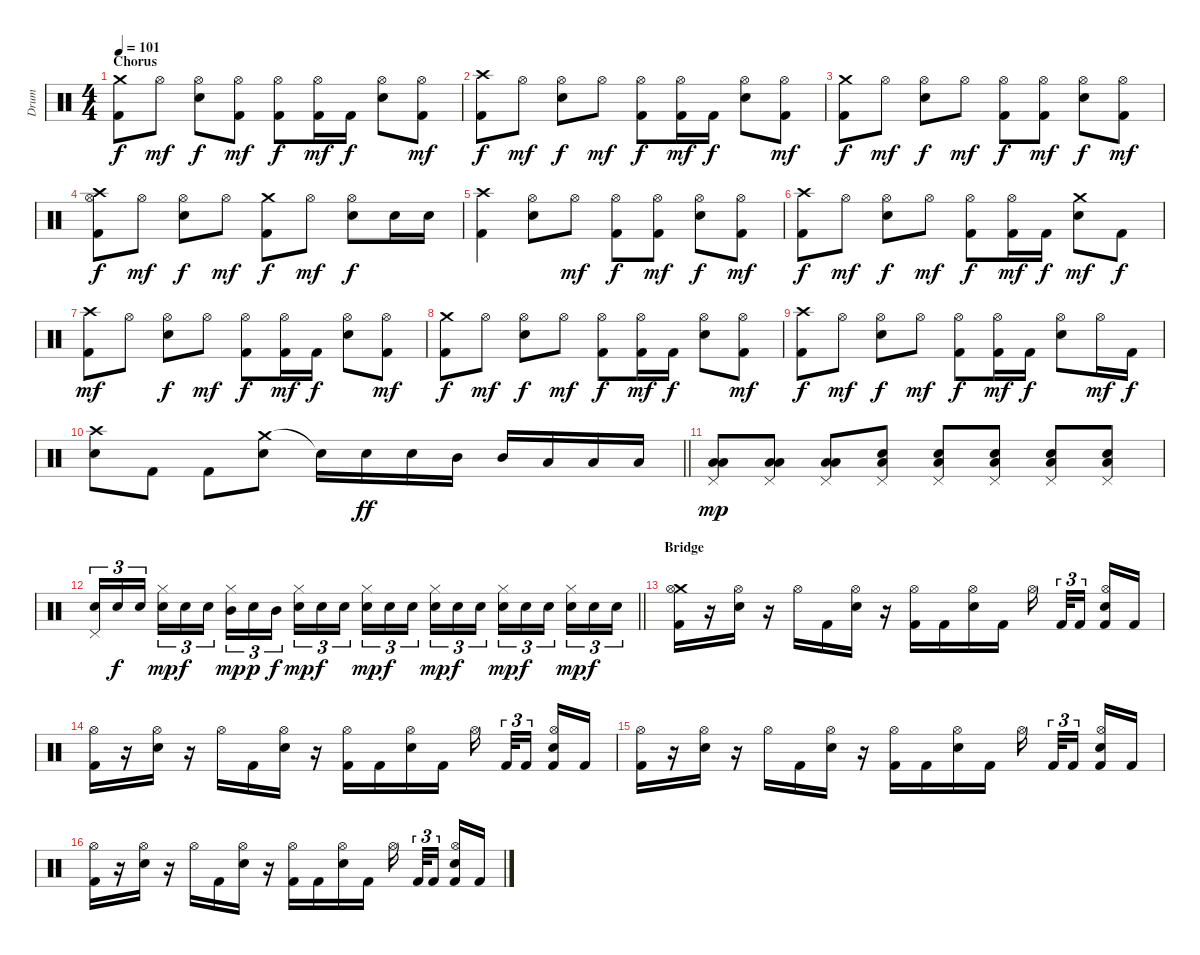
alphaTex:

\track ("Drum" "Drum") {instrument percussion}
\staff {score}
\articulation defaults
\ts (4 4)
\section ("" "Chorus")
\tempo 101
\clef neutral
\ks c
("Crash medium (hit)" "Kick (hit) 2").8{dy f} "Hi-Hat (open)".8{dy mf} ("Hi-Hat (open)" "Snare (hit) 2").8{dy f} ("Hi-Hat (open)" "Kick (hit) 2").8{dy mf} ("Hi-Hat (open)" "Kick (hit) 2").8{dy f} ("Hi-Hat (open)" "Kick (hit) 2").16{dy mf} "Kick (hit) 2".16{dy f} ("Hi-Hat (open)" "Snare (hit) 2").8 ("Hi-Hat (open)" "Kick (hit) 2").8{dy mf} |
("Crash high (hit)" "Kick (hit) 2").8{dy f} "Hi-Hat (open)".8{dy mf} ("Hi-Hat (open)" "Snare (hit) 2").8{dy f} "Hi-Hat (open)".8{dy mf} ("Hi-Hat (open)" "Kick (hit) 2").8{dy f} ("Hi-Hat (open)" "Kick (hit) 2").16{dy mf} "Kick (hit) 2".16{dy f} ("Hi-Hat (open)" "Snare (hit) 2").8 ("Hi-Hat (open)" "Kick (hit) 2").8{dy mf} |
("Crash medium (hit)" "Kick (hit) 2").8{dy f} "Hi-Hat (open)".8{dy mf} ("Hi-Hat (open)" "Snare (hit) 2").8{dy f} "Hi-Hat (open)".8{dy mf} ("Hi-Hat (open)" "Kick (hit) 2").8{dy f} ("Hi-Hat (open)" "Kick (hit) 2").8{dy mf} ("Hi-Hat (open)" "Snare (hit) 2").8{dy f} ("Hi-Hat (open)" "Kick (hit) 2").8{dy mf} |
("Crash high (hit)" "Hi-Hat (open)" "Kick (hit) 2").8{dy f} "Hi-Hat (open)".8{dy mf} ("Hi-Hat (open)" "Snare (hit) 2").8{dy f} "Hi-Hat (open)".8{dy mf} ("Crash medium (hit)" "Kick (hit) 2").8{dy f} "Hi-Hat (open)".8{dy mf} ("Hi-Hat (open)" "Snare (hit) 2").8{dy f} "Snare (hit) 2".16 "Snare (hit) 2".16 |
("Crash high (hit)" "Kick (hit) 2").4 ("Hi-Hat (open)" "Snare (hit) 2").8 "Hi-Hat (open)".8{dy mf} ("Hi-Hat (open)" "Kick (hit) 2").8{dy f} ("Hi-Hat (open)" "Kick (hit) 2").8{dy mf} ("Hi-Hat (open)" "Snare (hit) 2").8{dy f} ("Hi-Hat (open)" "Kick (hit) 2").8{dy mf} |
("Crash high (hit)" "Kick (hit) 2").8{dy f} "Hi-Hat (open)".8{dy mf} ("Hi-Hat (open)" "Snare (hit) 2").8{dy f} "Hi-Hat (open)".8{dy mf} ("Hi-Hat (open)" "Kick (hit) 2").8{dy f} ("Hi-Hat (open)" "Kick (hit) 2").16{dy mf} "Kick (hit) 2".16{dy f} ("Crash medium (hit)" "Snare (hit) 2").8{dy mf} "Kick (hit) 2".8{dy f} |
("Crash high (hit)" "Kick (hit) 2").8{dy mf} "Hi-Hat (open)".8 ("Hi-Hat (open)" "Snare (hit) 2").8{dy f} "Hi-Hat (open)".8{dy mf} ("Hi-Hat (open)" "Kick (hit) 2").8{dy f} ("Hi-Hat (open)" "Kick (hit) 2").16{dy mf} "Kick (hit) 2".16{dy f} ("Hi-Hat (open)" "Snare (hit) 2").8 ("Hi-Hat (open)" "Kick (hit) 2").8{dy mf} |
("Crash medium (hit)" "Kick (hit) 2").8{dy f} "Hi-Hat (open)".8{dy mf} ("Hi-Hat (open)" "Snare (hit) 2").8{dy f} "Hi-Hat (open)".8{dy mf} ("Hi-Hat (open)" "Kick (hit) 2").8{dy f} ("Hi-Hat (open)" "Kick (hit) 2").16{dy mf} "Kick (hit) 2".16{dy f} ("Hi-Hat (open)" "Snare (hit) 2").8 ("Hi-Hat (open)" "Kick (hit) 2").8{dy mf} |
("Crash high (hit)" "Kick (hit) 2").8{dy f} "Hi-Hat (open)".8{dy mf} ("Hi-Hat (open)" "Snare (hit) 2").8{dy f} "Hi-Hat (open)".8{dy mf} ("Hi-Hat (open)" "Kick (hit) 2").8{dy f} ("Hi-Hat (open)" "Kick (hit) 2").16{dy mf} "Kick (hit) 2".16{dy f} ("Hi-Hat (open)" "Snare (hit) 2").8 "Hi-Hat (open)".16{dy mf} "Kick (hit) 2".16{dy f} |
\barLineRight lightlight
("Crash high (hit)" "Snare (hit) 2").8 "Kick (hit) 2".8 "Kick (hit) 2".8 ("Crash medium (hit)" "Snare (hit) 2").8 "Snare (hit)"{t}.16 "Snare (hit) 2".16{dy ff} "Snare (hit) 2".16 "Mid Tom (hit)".16 "Mid Tom (hit)".16 "Low Tom (hit)".16 "Low Tom (hit)".16 "Low Tom (hit)".16 |
("Low Tom (hit)" "Low Floor Tom (hit)" "Pedal Hi-Hat (hit)").8{dy mp} ("Low Tom (hit)" "Low Floor Tom (hit)" "Pedal Hi-Hat (hit)").8 ("Low Tom (hit)" "Low Floor Tom (hit)" "Pedal Hi-Hat (hit)").8 ("Snare (hit) 2" "Low Floor Tom (hit)" "Pedal Hi-Hat (hit)").8 ("Snare (hit) 2" "Low Floor Tom (hit)" "Pedal Hi-Hat (hit)").8 ("Snare (hit) 2" "Low Floor Tom (hit)" "Pedal Hi-Hat (hit)").8 ("Snare (hit) 2" "Low Floor Tom (hit)" "Pedal Hi-Hat (hit)").8 ("Snare (hit) 2" "Low Floor Tom (hit)" "Pedal Hi-Hat (hit)").8 |
\barLineRight lightlight
("Snare (hit) 2" "Pedal Hi-Hat (hit)").16{tu (3 2)} "Snare (hit) 2".16{tu (3 2) dy f} "Snare (hit) 2".16{tu (3 2) beam splitsecondary} ("Snare (hit) 2" "Hi-Hat (closed)").16{tu (3 2) dy mp} "Snare (hit) 2".16{tu (3 2) dy f} "Snare (hit) 2".16{tu (3 2)} ("Mid Tom (hit)" "Hi-Hat (closed)").16{tu (3 2) dy mp} "Snare (hit) 2".16{tu (3 2) dy p} "Mid Tom (hit)".16{tu (3 2) dy f beam splitsecondary} ("Snare (hit) 2" "Hi-Hat (closed)").16{tu (3 2) dy mp} "Snare (hit) 2".16{tu (3 2) dy f} "Snare (hit) 2".16{tu (3 2)} ("Snare (hit) 2" "Hi-Hat (closed)").16{tu (3 2) dy mp} "Snare (hit) 2".16{tu (3 2) dy f} "Snare (hit) 2".16{tu (3 2) beam splitsecondary} ("Snare (hit) 2" "Hi-Hat (closed)").16{tu (3 2) dy mp} "Snare (hit) 2".16{tu (3 2) dy f} "Snare (hit) 2".16{tu (3 2)} ("Snare (hit) 2" "Hi-Hat (closed)").16{tu (3 2) dy mp} "Snare (hit) 2".16{tu (3 2) dy f} "Snare (hit) 2".16{tu (3 2) beam splitsecondary} ("Snare (hit) 2" "Hi-Hat (closed)").16{tu (3 2) dy mp} "Snare (hit) 2".16{tu (3 2) dy f} "Snare (hit) 2".16{tu (3 2)} |
\section ("" "Bridge")
("Crash medium (hit)" "Hi-Hat (open)" "Kick (hit) 2").16 r.16 ("Hi-Hat (open)" "Snare (hit) 2").16 r.16 "Hi-Hat (open)".16 "Kick (hit) 2".16 ("Hi-Hat (open)" "Snare (hit) 2").16 r.16 ("Hi-Hat (open)" "Kick (hit) 2").16 "Kick (hit) 2".16 ("Hi-Hat (open)" "Snare (hit) 2").16 "Kick (hit) 2".16 "Hi-Hat (open)".16{beam splitsecondary} "Kick (hit) 2".32{tu (3 2)} "Kick (hit) 2".16{tu (3 2) beam splitsecondary} ("Hi-Hat (open)" "Snare (hit) 2" "Kick (hit) 2").16 "Kick (hit) 2".16 |
("Hi-Hat (open)" "Kick (hit) 2").16 r.16 ("Hi-Hat (open)" "Snare (hit) 2").16 r.16 "Hi-Hat (open)".16 "Kick (hit) 2".16 ("Hi-Hat (open)" "Snare (hit) 2").16 r.16 ("Hi-Hat (open)" "Kick (hit) 2").16 "Kick (hit) 2".16 ("Hi-Hat (open)" "Snare (hit) 2").16 "Kick (hit) 2".16 "Hi-Hat (open)".16{beam splitsecondary} "Kick (hit) 2".32{tu (3 2)} "Kick (hit) 2".16{tu (3 2) beam splitsecondary} ("Hi-Hat (open)" "Snare (hit) 2" "Kick (hit) 2").16 "Kick (hit) 2".16 |
("Hi-Hat (open)" "Kick (hit) 2").16 r.16 ("Hi-Hat (open)" "Snare (hit) 2").16 r.16 "Hi-Hat (open)".16 "Kick (hit) 2".16 ("Hi-Hat (open)" "Snare (hit) 2").16 r.16 ("Hi-Hat (open)" "Kick (hit) 2").16 "Kick (hit) 2".16 ("Hi-Hat (open)" "Snare (hit) 2").16 "Kick (hit) 2".16 "Hi-Hat (open)".16{beam splitsecondary} "Kick (hit) 2".32{tu (3 2)} "Kick (hit) 2".16{tu (3 2) beam splitsecondary} ("Hi-Hat (open)" "Snare (hit) 2" "Kick (hit) 2").16 "Kick (hit) 2".16 |
("Hi-Hat (open)" "Kick (hit) 2").16 r.16 ("Hi-Hat (open)" "Snare (hit) 2").16 r.16 "Hi-Hat (open)".16 "Kick (hit) 2".16 ("Hi-Hat (open)" "Snare (hit) 2").16 r.16 ("Hi-Hat (open)" "Kick (hit) 2").16 "Kick (hit) 2".16 ("Hi-Hat (open)" "Snare (hit) 2").16 "Kick (hit) 2".16 "Hi-Hat (open)".16{beam splitsecondary} "Kick (hit) 2".32{tu (3 2)} "Kick (hit) 2".16{tu (3 2) beam splitsecondary} ("Hi-Hat (open)" "Snare (hit) 2" "Kick (hit) 2").16 "Kick (hit) 2".16
